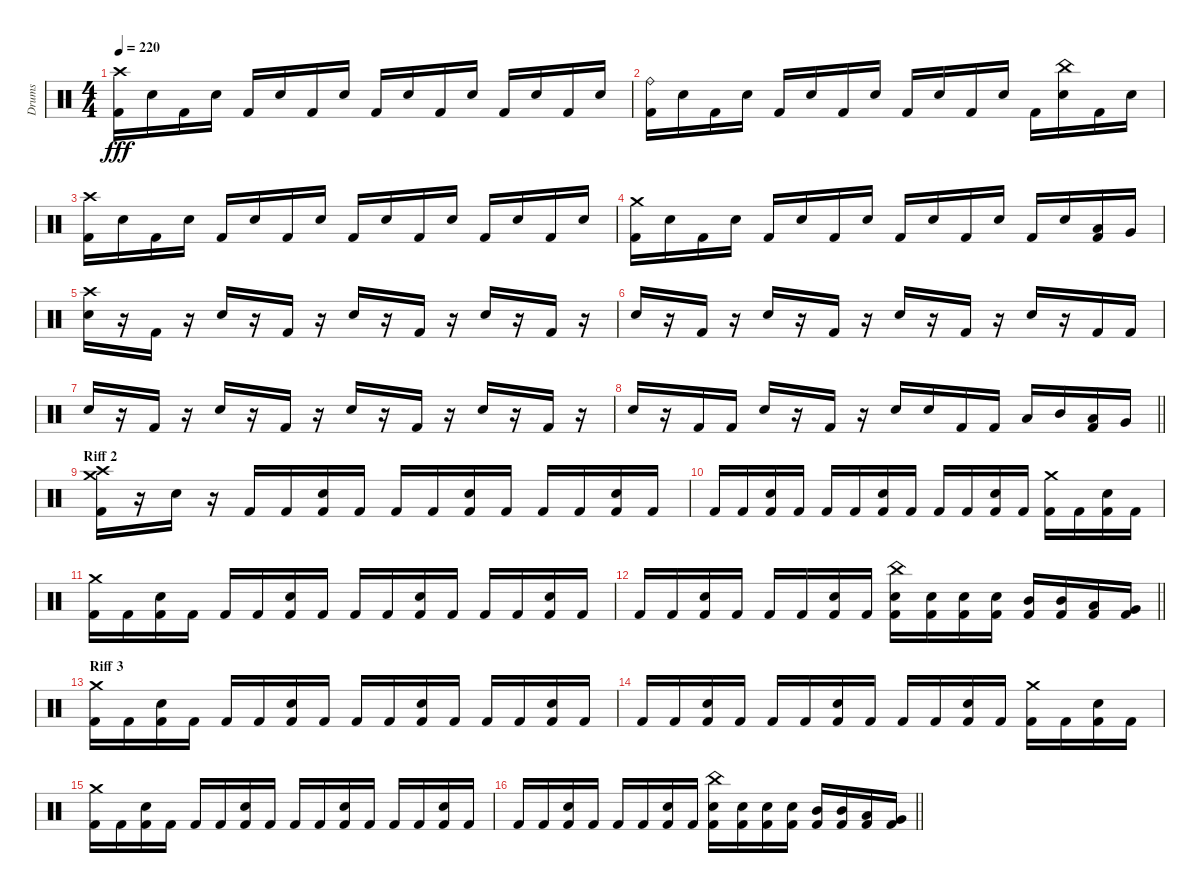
\track ("Drums" "Drums") {instrument percussion}
\staff {score}
\articulation defaults
\ts (4 4)
\tempo 220
\clef neutral
\ks c
("Crash high (hit)" "Kick (hit) 2").16{dy fff} "Snare (hit) 2".16 "Kick (hit) 2".16 "Snare (hit) 2".16 "Kick (hit) 2".16 "Snare (hit) 2".16 "Kick (hit) 2".16 "Snare (hit) 2".16 "Kick (hit) 2".16 "Snare (hit) 2".16 "Kick (hit) 2".16 "Snare (hit) 2".16 "Kick (hit) 2".16 "Snare (hit) 2".16 "Kick (hit) 2".16 "Snare (hit) 2".16 |
("Kick (hit) 2" "Ride (bell)").16 "Snare (hit) 2".16 "Kick (hit) 2".16 "Snare (hit) 2".16 "Kick (hit) 2".16 "Snare (hit) 2".16 "Kick (hit) 2".16 "Snare (hit) 2".16 "Kick (hit) 2".16 "Snare (hit) 2".16 "Kick (hit) 2".16 "Snare (hit) 2".16 "Kick (hit) 2".16 ("China (hit)" "Snare (hit) 2").16 "Kick (hit) 2".16 "Snare (hit) 2".16 |
("Crash high (hit)" "Kick (hit) 2").16 "Snare (hit) 2".16 "Kick (hit) 2".16 "Snare (hit) 2".16 "Kick (hit) 2".16 "Snare (hit) 2".16 "Kick (hit) 2".16 "Snare (hit) 2".16 "Kick (hit) 2".16 "Snare (hit) 2".16 "Kick (hit) 2".16 "Snare (hit) 2".16 "Kick (hit) 2".16 "Snare (hit) 2".16 "Kick (hit) 2".16 "Snare (hit) 2".16 |
("Crash medium (hit)" "Kick (hit) 2").16 "Snare (hit) 2".16 "Kick (hit) 2".16 "Snare (hit) 2".16 "Kick (hit) 2".16 "Snare (hit) 2".16 "Kick (hit) 2".16 "Snare (hit) 2".16 "Kick (hit) 2".16 "Snare (hit) 2".16 "Kick (hit) 2".16 "Snare (hit) 2".16 "Kick (hit) 2".16 "Snare (hit) 2".16 ("Kick (hit) 2" "Low Tom (hit)").16 "Very Low Tom (hit)".16 |
("Crash high (hit)" "Snare (hit) 2").16 r.16 "Kick (hit) 2".16 r.16 "Snare (hit) 2".16 r.16 "Kick (hit) 2".16 r.16 "Snare (hit) 2".16 r.16 "Kick (hit) 2".16 r.16 "Snare (hit) 2".16 r.16 "Kick (hit) 2".16 r.16 |
"Snare (hit) 2".16 r.16 "Kick (hit) 2".16 r.16 "Snare (hit) 2".16 r.16 "Kick (hit) 2".16 r.16 "Snare (hit) 2".16 r.16 "Kick (hit) 2".16 r.16 "Snare (hit) 2".16 r.16 "Kick (hit) 2".16 "Kick (hit) 2".16 |
"Snare (hit) 2".16 r.16 "Kick (hit) 2".16 r.16 "Snare (hit) 2".16 r.16 "Kick (hit) 2".16 r.16 "Snare (hit) 2".16 r.16 "Kick (hit) 2".16 r.16 "Snare (hit) 2".16 r.16 "Kick (hit) 2".16 r.16 |
\barLineRight lightlight "Snare (hit) 2".16
r.16 "Kick (hit) 2".16 "Kick (hit) 2".16 "Snare (hit) 2".16 r.16 "Kick (hit) 2".16 r.16 "Snare (hit) 2".16 "Snare (hit) 2".16 "Kick (hit) 2".16 "Kick (hit) 2".16 "Low Tom (hit)".16 "Mid Tom (hit)".16 ("Kick (hit) 2" "Low Tom (hit)").16 "Very Low Tom (hit)".16 |
\section ("" "Riff 2")
("Crash high (hit)" "Crash medium (hit)" "Kick (hit) 2").16 r.16 "Snare (hit) 2".16 r.16 "Kick (hit) 2".16 "Kick (hit) 2".16 ("Kick (hit) 2" "Snare (hit) 2").16 "Kick (hit) 2".16 "Kick (hit) 2".16 "Kick (hit) 2".16 ("Kick (hit) 2" "Snare (hit) 2").16 "Kick (hit) 2".16 "Kick (hit) 2".16 "Kick (hit) 2".16 ("Kick (hit) 2" "Snare (hit) 2").16 "Kick (hit) 2".16 |
"Kick (hit) 2".16 "Kick (hit) 2".16 ("Kick (hit) 2" "Snare (hit) 2").16 "Kick (hit) 2".16 "Kick (hit) 2".16 "Kick (hit) 2".16 ("Kick (hit) 2" "Snare (hit) 2").16 "Kick (hit) 2".16 "Kick (hit) 2".16 "Kick (hit) 2".16 ("Kick (hit) 2" "Snare (hit) 2").16 "Kick (hit) 2".16 ("Crash medium (hit)" "Kick (hit) 2").16 "Kick (hit) 2".16 ("Kick (hit) 2" "Snare (hit) 2").16 "Kick (hit) 2".16 |
("Crash medium (hit)" "Kick (hit) 2").16 "Kick (hit) 2".16 ("Kick (hit) 2" "Snare (hit) 2").16 "Kick (hit) 2".16 "Kick (hit) 2".16 "Kick (hit) 2".16 ("Kick (hit) 2" "Snare (hit) 2").16 "Kick (hit) 2".16 "Kick (hit) 2".16 "Kick (hit) 2".16 ("Kick (hit) 2" "Snare (hit) 2").16 "Kick (hit) 2".16 "Kick (hit) 2".16 "Kick (hit) 2".16 ("Kick (hit) 2" "Snare (hit) 2").16 "Kick (hit) 2".16 |
\barLineRight lightlight "Kick (hit) 2".16 "Kick (hit) 2".16
("Kick (hit) 2" "Snare (hit) 2").16 "Kick (hit) 2".16 "Kick (hit) 2".16 "Kick (hit) 2".16 ("Kick (hit) 2" "Snare (hit) 2").16 "Kick (hit) 2".16 ("China (hit)" "Kick (hit) 2" "Snare (hit) 2").16 ("Kick (hit) 2" "Snare (hit) 2").16 ("Kick (hit) 2" "Snare (hit) 2").16 ("Kick (hit) 2" "Snare (hit) 2").16 ("Kick (hit) 2" "Mid Tom (hit)").16 ("Kick (hit) 2" "Mid Tom (hit)").16 ("Kick (hit) 2" "Low Tom (hit)").16 ("Kick (hit) 2" "Very Low Tom (hit)").16 |
\section ("" "Riff 3")
("Crash medium (hit)" "Kick (hit) 2").16 "Kick (hit) 2".16 ("Kick (hit) 2" "Snare (hit) 2").16 "Kick (hit) 2".16 "Kick (hit) 2".16 "Kick (hit) 2".16 ("Kick (hit) 2" "Snare (hit) 2").16 "Kick (hit) 2".16 "Kick (hit) 2".16 "Kick (hit) 2".16 ("Kick (hit) 2" "Snare (hit) 2").16 "Kick (hit) 2".16 "Kick (hit) 2".16 "Kick (hit) 2".16 ("Kick (hit) 2" "Snare (hit) 2").16 "Kick (hit) 2".16 |
"Kick (hit) 2".16 "Kick (hit) 2".16 ("Kick (hit) 2" "Snare (hit) 2").16 "Kick (hit) 2".16 "Kick (hit) 2".16 "Kick (hit) 2".16 ("Kick (hit) 2" "Snare (hit) 2").16 "Kick (hit) 2".16 "Kick (hit) 2".16 "Kick (hit) 2".16 ("Kick (hit) 2" "Snare (hit) 2").16 "Kick (hit) 2".16 ("Crash medium (hit)" "Kick (hit) 2").16 "Kick (hit) 2".16 ("Kick (hit) 2" "Snare (hit) 2").16 "Kick (hit) 2".16 |
("Crash medium (hit)" "Kick (hit) 2").16 "Kick (hit) 2".16 ("Kick (hit) 2" "Snare (hit) 2").16 "Kick (hit) 2".16 "Kick (hit) 2".16 "Kick (hit) 2".16 ("Kick (hit) 2" "Snare (hit) 2").16 "Kick (hit) 2".16 "Kick (hit) 2".16 "Kick (hit) 2".16 ("Kick (hit) 2" "Snare (hit) 2").16 "Kick (hit) 2".16 "Kick (hit) 2".16 "Kick (hit) 2".16 ("Kick (hit) 2" "Snare (hit) 2").16 "Kick (hit) 2".16 |
\barLineRight lightlight "Kick (hit) 2".16 "Kick (hit) 2".16
("Kick (hit) 2" "Snare (hit) 2").16 "Kick (hit) 2".16 "Kick (hit) 2".16 "Kick (hit) 2".16 ("Kick (hit) 2" "Snare (hit) 2").16 "Kick (hit) 2".16 ("China (hit)" "Kick (hit) 2" "Snare (hit) 2").16 ("Kick (hit) 2" "Snare (hit) 2").16 ("Kick (hit) 2" "Snare (hit) 2").16 ("Kick (hit) 2" "Snare (hit) 2").16 ("Kick (hit) 2" "Mid Tom (hit)").16 ("Kick (hit) 2" "Mid Tom (hit)").16 ("Kick (hit) 2" "Low Tom (hit)").16 ("Kick (hit) 2" "Very Low Tom (hit)").16
